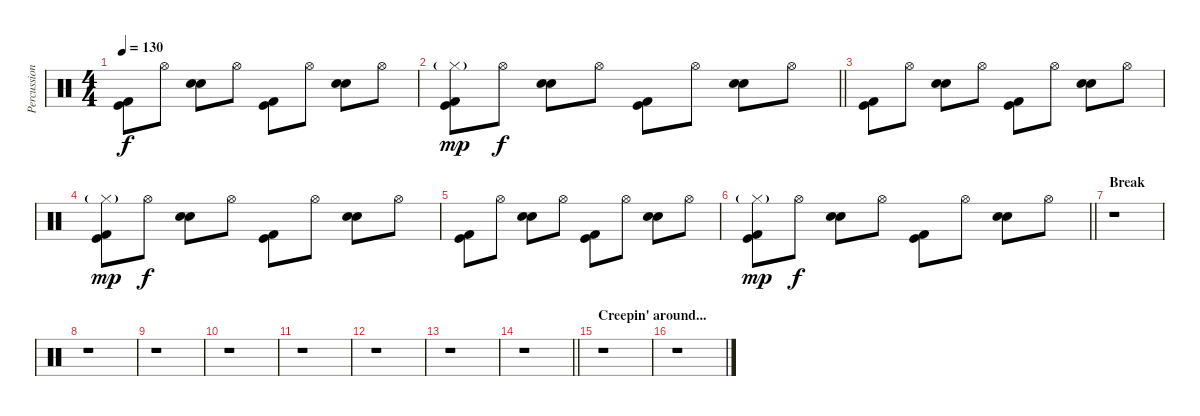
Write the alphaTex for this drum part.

\track ("Percussion" "Percussion") {instrument percussion}
\staff {score}
\articulation defaults
\ts (4 4)
\tempo 130
\clef neutral
\ks c
("Kick (hit) 2" "Kick (hit)").8{dy f} "Hi-Hat (open)".8 ("Electric Snare (hit)" "Snare (hit) 2").8 "Hi-Hat (open)".8 ("Kick (hit) 2" "Kick (hit)").8 "Hi-Hat (open)".8 ("Electric Snare (hit)" "Snare (hit) 2").8 "Hi-Hat (open)".8 |
\barLineRight lightlight
("Kick (hit) 2" "Kick (hit)" "Hi-Hat (closed)"{g}).8{dy mp} "Hi-Hat (open)".8{dy f} ("Electric Snare (hit)" "Snare (hit) 2").8 "Hi-Hat (open)".8 ("Kick (hit) 2" "Kick (hit)").8 "Hi-Hat (open)".8 ("Electric Snare (hit)" "Snare (hit) 2").8 "Hi-Hat (open)".8 |
("Kick (hit) 2" "Kick (hit)").8 "Hi-Hat (open)".8 ("Electric Snare (hit)" "Snare (hit) 2").8 "Hi-Hat (open)".8 ("Kick (hit) 2" "Kick (hit)").8 "Hi-Hat (open)".8 ("Electric Snare (hit)" "Snare (hit) 2").8 "Hi-Hat (open)".8 |
("Kick (hit) 2" "Kick (hit)" "Hi-Hat (closed)"{g}).8{dy mp} "Hi-Hat (open)".8{dy f} ("Electric Snare (hit)" "Snare (hit) 2").8 "Hi-Hat (open)".8 ("Kick (hit) 2" "Kick (hit)").8 "Hi-Hat (open)".8 ("Electric Snare (hit)" "Snare (hit) 2").8 "Hi-Hat (open)".8 |
("Kick (hit) 2" "Kick (hit)").8 "Hi-Hat (open)".8 ("Electric Snare (hit)" "Snare (hit) 2").8 "Hi-Hat (open)".8 ("Kick (hit) 2" "Kick (hit)").8 "Hi-Hat (open)".8 ("Electric Snare (hit)" "Snare (hit) 2").8 "Hi-Hat (open)".8 |
\barLineRight lightlight
("Kick (hit) 2" "Kick (hit)" "Hi-Hat (closed)"{g}).8{dy mp} "Hi-Hat (open)".8{dy f} ("Electric Snare (hit)" "Snare (hit) 2").8 "Hi-Hat (open)".8 ("Kick (hit) 2" "Kick (hit)").8 "Hi-Hat (open)".8 ("Electric Snare (hit)" "Snare (hit) 2").8 "Hi-Hat (open)".8 |
\section ("" "Break")
r.1 |
r.1 |
r.1 |
r.1 |
r.1 |
r.1 |
r.1 |
\barLineRight lightlight
r.1 |
\section ("" "Creepin' around...")
r.1 |
r.1
